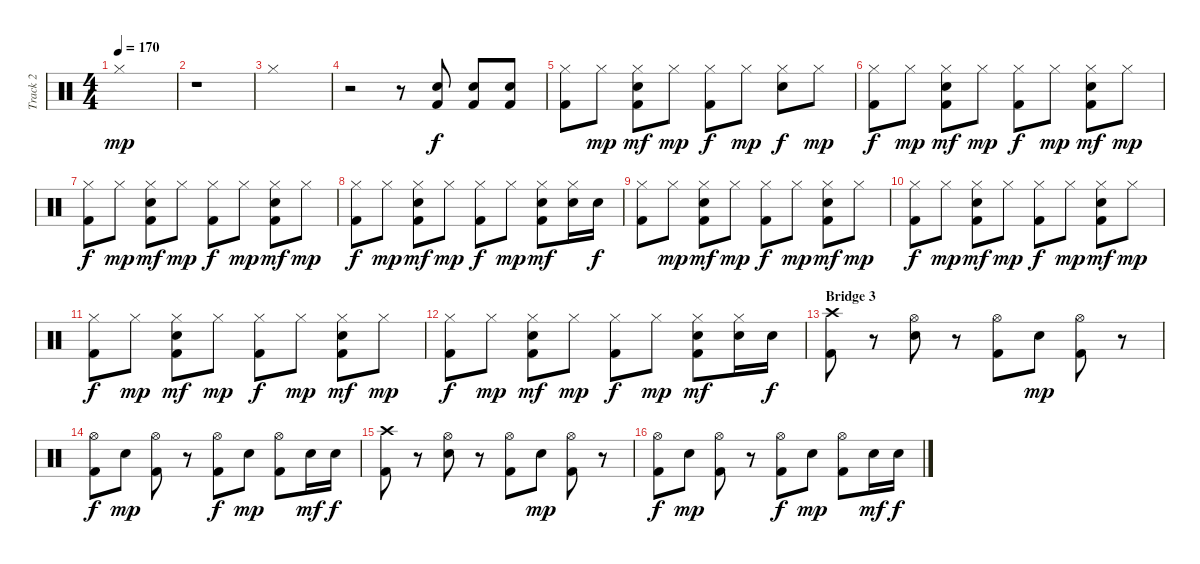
\track ("Track 2" "Track 2") {instrument percussion}
\staff {score}
\articulation defaults
\ts (4 4)
\tempo 170
\clef neutral
\ks c "Hi-Hat (closed)".1{dy mp}
|
r.1 |
"Hi-Hat (closed)".1 |
r.2 r.8 ("Electric Snare (hit)" "Kick (hit) 2").8{dy f} ("Electric Snare (hit)" "Kick (hit) 2").8 ("Electric Snare (hit)" "Kick (hit) 2").8 |
("Hi-Hat (closed)" "Kick (hit) 2").8 "Hi-Hat (closed)".8{dy mp} ("Hi-Hat (closed)" "Electric Snare (hit)" "Kick (hit) 2").8{dy mf} "Hi-Hat (closed)".8{dy mp} ("Hi-Hat (closed)" "Kick (hit) 2").8{dy f} "Hi-Hat (closed)".8{dy mp} ("Hi-Hat (closed)" "Electric Snare (hit)").8{dy f} "Hi-Hat (closed)".8{dy mp} |
("Hi-Hat (closed)" "Kick (hit) 2").8{dy f} "Hi-Hat (closed)".8{dy mp} ("Hi-Hat (closed)" "Electric Snare (hit)" "Kick (hit) 2").8{dy mf} "Hi-Hat (closed)".8{dy mp} ("Hi-Hat (closed)" "Kick (hit) 2").8{dy f} "Hi-Hat (closed)".8{dy mp} ("Hi-Hat (closed)" "Electric Snare (hit)" "Kick (hit) 2").8{dy mf} "Hi-Hat (closed)".8{dy mp} |
("Hi-Hat (closed)" "Kick (hit) 2").8{dy f} "Hi-Hat (closed)".8{dy mp} ("Hi-Hat (closed)" "Electric Snare (hit)" "Kick (hit) 2").8{dy mf} "Hi-Hat (closed)".8{dy mp} ("Hi-Hat (closed)" "Kick (hit) 2").8{dy f} "Hi-Hat (closed)".8{dy mp} ("Hi-Hat (closed)" "Electric Snare (hit)" "Kick (hit) 2").8{dy mf} "Hi-Hat (closed)".8{dy mp} |
("Hi-Hat (closed)" "Kick (hit) 2").8{dy f} "Hi-Hat (closed)".8{dy mp} ("Hi-Hat (closed)" "Electric Snare (hit)" "Kick (hit) 2").8{dy mf} "Hi-Hat (closed)".8{dy mp} ("Hi-Hat (closed)" "Kick (hit) 2").8{dy f} "Hi-Hat (closed)".8{dy mp} ("Hi-Hat (closed)" "Electric Snare (hit)" "Kick (hit) 2").8{dy mf} ("Hi-Hat (closed)" "Electric Snare (hit)").16 "Electric Snare (hit)".16{dy f} |
("Hi-Hat (closed)" "Kick (hit) 2").8 "Hi-Hat (closed)".8{dy mp} ("Hi-Hat (closed)" "Electric Snare (hit)" "Kick (hit) 2").8{dy mf} "Hi-Hat (closed)".8{dy mp} ("Hi-Hat (closed)" "Kick (hit) 2").8{dy f} "Hi-Hat (closed)".8{dy mp} ("Hi-Hat (closed)" "Electric Snare (hit)" "Kick (hit) 2").8{dy mf} "Hi-Hat (closed)".8{dy mp} |
("Hi-Hat (closed)" "Kick (hit) 2").8{dy f} "Hi-Hat (closed)".8{dy mp} ("Hi-Hat (closed)" "Electric Snare (hit)" "Kick (hit) 2").8{dy mf} "Hi-Hat (closed)".8{dy mp} ("Hi-Hat (closed)" "Kick (hit) 2").8{dy f} "Hi-Hat (closed)".8{dy mp} ("Hi-Hat (closed)" "Electric Snare (hit)" "Kick (hit) 2").8{dy mf} "Hi-Hat (closed)".8{dy mp} |
("Hi-Hat (closed)" "Kick (hit) 2").8{dy f} "Hi-Hat (closed)".8{dy mp} ("Hi-Hat (closed)" "Electric Snare (hit)" "Kick (hit) 2").8{dy mf} "Hi-Hat (closed)".8{dy mp} ("Hi-Hat (closed)" "Kick (hit) 2").8{dy f} "Hi-Hat (closed)".8{dy mp} ("Hi-Hat (closed)" "Electric Snare (hit)" "Kick (hit) 2").8{dy mf} "Hi-Hat (closed)".8{dy mp} |
("Hi-Hat (closed)" "Kick (hit) 2").8{dy f} "Hi-Hat (closed)".8{dy mp} ("Hi-Hat (closed)" "Electric Snare (hit)" "Kick (hit) 2").8{dy mf} "Hi-Hat (closed)".8{dy mp} ("Hi-Hat (closed)" "Kick (hit) 2").8{dy f} "Hi-Hat (closed)".8{dy mp} ("Hi-Hat (closed)" "Electric Snare (hit)" "Kick (hit) 2").8{dy mf} ("Hi-Hat (closed)" "Electric Snare (hit)").16 "Electric Snare (hit)".16{dy f} |
\section ("" "Bridge 3")
("Crash high (hit)" "Kick (hit) 2").8 r.8 ("Hi-Hat (open)" "Electric Snare (hit)").8 r.8 ("Hi-Hat (open)" "Kick (hit) 2").8 "Electric Snare (hit)".8{dy mp} ("Hi-Hat (open)" "Kick (hit) 2").8 r.8 |
("Hi-Hat (open)" "Kick (hit) 2").8{dy f} "Electric Snare (hit)".8{dy mp} ("Hi-Hat (open)" "Kick (hit) 2").8 r.8 ("Hi-Hat (open)" "Kick (hit) 2").8{dy f} "Electric Snare (hit)".8{dy mp} ("Hi-Hat (open)" "Kick (hit) 2").8 "Electric Snare (hit)".16{dy mf} "Electric Snare (hit)".16{dy f} |
("Crash high (hit)" "Kick (hit) 2").8 r.8 ("Hi-Hat (open)" "Electric Snare (hit)").8 r.8 ("Hi-Hat (open)" "Kick (hit) 2").8 "Electric Snare (hit)".8{dy mp} ("Hi-Hat (open)" "Kick (hit) 2").8 r.8 |
("Hi-Hat (open)" "Kick (hit) 2").8{dy f} "Electric Snare (hit)".8{dy mp} ("Hi-Hat (open)" "Kick (hit) 2").8 r.8 ("Hi-Hat (open)" "Kick (hit) 2").8{dy f} "Electric Snare (hit)".8{dy mp} ("Hi-Hat (open)" "Kick (hit) 2").8 "Electric Snare (hit)".16{dy mf} "Electric Snare (hit)".16{dy f}
